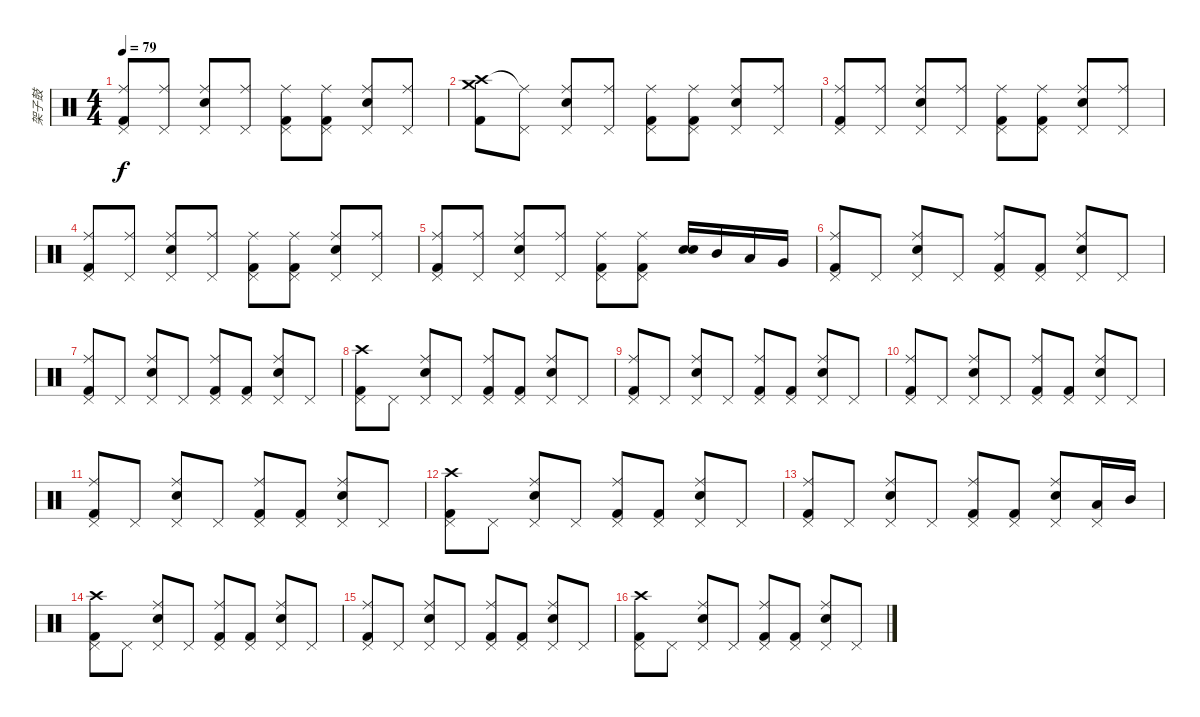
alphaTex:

\track ("架子鼓" "架子鼓") {instrument percussion}
\staff {score}
\articulation defaults
\ts (4 4)
\tempo 79
\clef neutral
\ks c
("Ride (middle)" "Pedal Hi-Hat (hit)" "Kick (hit) 2").8{dy f} ("Ride (middle)" "Pedal Hi-Hat (hit)").8 ("Ride (middle)" "Pedal Hi-Hat (hit)" "Electric Snare (hit)").8 ("Ride (middle)" "Pedal Hi-Hat (hit)").8 ("Ride (middle)" "Pedal Hi-Hat (hit)" "Kick (hit) 2").8 ("Ride (middle)" "Pedal Hi-Hat (hit)" "Kick (hit) 2").8 ("Ride (middle)" "Pedal Hi-Hat (hit)" "Electric Snare (hit)").8 ("Ride (middle)" "Pedal Hi-Hat (hit)").8 |
("Crash high (hit)" "Crash medium (hit)" "Kick (hit) 2").8 ("Ride (middle)"{t} "Pedal Hi-Hat (hit)").8 ("Ride (middle)" "Pedal Hi-Hat (hit)" "Electric Snare (hit)").8 ("Ride (middle)" "Pedal Hi-Hat (hit)").8 ("Ride (middle)" "Pedal Hi-Hat (hit)" "Kick (hit) 2").8 ("Ride (middle)" "Pedal Hi-Hat (hit)" "Kick (hit) 2").8 ("Ride (middle)" "Pedal Hi-Hat (hit)" "Electric Snare (hit)").8 ("Ride (middle)" "Pedal Hi-Hat (hit)").8 |
("Ride (middle)" "Pedal Hi-Hat (hit)" "Kick (hit) 2").8 ("Ride (middle)" "Pedal Hi-Hat (hit)").8 ("Ride (middle)" "Pedal Hi-Hat (hit)" "Electric Snare (hit)").8 ("Ride (middle)" "Pedal Hi-Hat (hit)").8 ("Ride (middle)" "Pedal Hi-Hat (hit)" "Kick (hit) 2").8 ("Ride (middle)" "Pedal Hi-Hat (hit)" "Kick (hit) 2").8 ("Ride (middle)" "Pedal Hi-Hat (hit)" "Electric Snare (hit)").8 ("Ride (middle)" "Pedal Hi-Hat (hit)").8 |
("Ride (middle)" "Pedal Hi-Hat (hit)" "Kick (hit) 2").8 ("Ride (middle)" "Pedal Hi-Hat (hit)").8 ("Ride (middle)" "Pedal Hi-Hat (hit)" "Electric Snare (hit)").8 ("Ride (middle)" "Pedal Hi-Hat (hit)").8 ("Ride (middle)" "Pedal Hi-Hat (hit)" "Kick (hit) 2").8 ("Ride (middle)" "Pedal Hi-Hat (hit)" "Kick (hit) 2").8 ("Ride (middle)" "Pedal Hi-Hat (hit)" "Electric Snare (hit)").8 ("Ride (middle)" "Pedal Hi-Hat (hit)").8 |
("Ride (middle)" "Pedal Hi-Hat (hit)" "Kick (hit) 2").8 ("Ride (middle)" "Pedal Hi-Hat (hit)").8 ("Ride (middle)" "Pedal Hi-Hat (hit)" "Electric Snare (hit)").8 ("Ride (middle)" "Pedal Hi-Hat (hit)").8 ("Ride (middle)" "Pedal Hi-Hat (hit)" "Kick (hit) 2").8 ("Ride (middle)" "Pedal Hi-Hat (hit)" "Kick (hit) 2").8 ("Electric Snare (hit)" "Electric Snare (hit)").16 "Mid Tom (hit)".16 "Low Tom (hit)".16 "Very Low Tom (hit)".16 |
("Ride (middle)" "Pedal Hi-Hat (hit)" "Kick (hit) 2").8 "Pedal Hi-Hat (hit)".8 ("Ride (middle)" "Pedal Hi-Hat (hit)" "Electric Snare (hit)").8 "Pedal Hi-Hat (hit)".8 ("Ride (middle)" "Pedal Hi-Hat (hit)" "Kick (hit) 2").8 ("Pedal Hi-Hat (hit)" "Kick (hit) 2").8 ("Ride (middle)" "Pedal Hi-Hat (hit)" "Electric Snare (hit)").8 "Pedal Hi-Hat (hit)".8 |
("Ride (middle)" "Pedal Hi-Hat (hit)" "Kick (hit) 2").8 "Pedal Hi-Hat (hit)".8 ("Ride (middle)" "Pedal Hi-Hat (hit)" "Electric Snare (hit)").8 "Pedal Hi-Hat (hit)".8 ("Ride (middle)" "Pedal Hi-Hat (hit)" "Kick (hit) 2").8 ("Pedal Hi-Hat (hit)" "Kick (hit) 2").8 ("Ride (middle)" "Pedal Hi-Hat (hit)" "Electric Snare (hit)").8 "Pedal Hi-Hat (hit)".8 |
("Crash high (hit)" "Pedal Hi-Hat (hit)" "Kick (hit) 2").8 "Pedal Hi-Hat (hit)".8 ("Ride (middle)" "Pedal Hi-Hat (hit)" "Electric Snare (hit)").8 "Pedal Hi-Hat (hit)".8 ("Ride (middle)" "Pedal Hi-Hat (hit)" "Kick (hit) 2").8 ("Pedal Hi-Hat (hit)" "Kick (hit) 2").8 ("Ride (middle)" "Pedal Hi-Hat (hit)" "Electric Snare (hit)").8 "Pedal Hi-Hat (hit)".8 |
("Ride (middle)" "Pedal Hi-Hat (hit)" "Kick (hit) 2").8 "Pedal Hi-Hat (hit)".8 ("Ride (middle)" "Pedal Hi-Hat (hit)" "Electric Snare (hit)").8 "Pedal Hi-Hat (hit)".8 ("Ride (middle)" "Pedal Hi-Hat (hit)" "Kick (hit) 2").8 ("Pedal Hi-Hat (hit)" "Kick (hit) 2").8 ("Ride (middle)" "Pedal Hi-Hat (hit)" "Electric Snare (hit)").8 "Pedal Hi-Hat (hit)".8 |
("Ride (middle)" "Pedal Hi-Hat (hit)" "Kick (hit) 2").8 "Pedal Hi-Hat (hit)".8 ("Ride (middle)" "Pedal Hi-Hat (hit)" "Electric Snare (hit)").8 "Pedal Hi-Hat (hit)".8 ("Ride (middle)" "Pedal Hi-Hat (hit)" "Kick (hit) 2").8 ("Pedal Hi-Hat (hit)" "Kick (hit) 2").8 ("Ride (middle)" "Pedal Hi-Hat (hit)" "Electric Snare (hit)").8 "Pedal Hi-Hat (hit)".8 |
("Ride (middle)" "Pedal Hi-Hat (hit)" "Kick (hit) 2").8 "Pedal Hi-Hat (hit)".8 ("Ride (middle)" "Pedal Hi-Hat (hit)" "Electric Snare (hit)").8 "Pedal Hi-Hat (hit)".8 ("Ride (middle)" "Pedal Hi-Hat (hit)" "Kick (hit) 2").8 ("Pedal Hi-Hat (hit)" "Kick (hit) 2").8 ("Ride (middle)" "Pedal Hi-Hat (hit)" "Electric Snare (hit)").8 "Pedal Hi-Hat (hit)".8 |
("Crash high (hit)" "Pedal Hi-Hat (hit)" "Kick (hit) 2").8 "Pedal Hi-Hat (hit)".8 ("Ride (middle)" "Pedal Hi-Hat (hit)" "Electric Snare (hit)").8 "Pedal Hi-Hat (hit)".8 ("Ride (middle)" "Pedal Hi-Hat (hit)" "Kick (hit) 2").8 ("Pedal Hi-Hat (hit)" "Kick (hit) 2").8 ("Ride (middle)" "Pedal Hi-Hat (hit)" "Electric Snare (hit)").8 "Pedal Hi-Hat (hit)".8 |
("Ride (middle)" "Pedal Hi-Hat (hit)" "Kick (hit) 2").8 "Pedal Hi-Hat (hit)".8 ("Ride (middle)" "Pedal Hi-Hat (hit)" "Electric Snare (hit)").8 "Pedal Hi-Hat (hit)".8 ("Ride (middle)" "Pedal Hi-Hat (hit)" "Kick (hit) 2").8 ("Pedal Hi-Hat (hit)" "Kick (hit) 2").8 ("Ride (middle)" "Pedal Hi-Hat (hit)" "Electric Snare (hit)").8 ("Pedal Hi-Hat (hit)" "Low Tom (hit)").16 "Mid Tom (hit)".16 |
("Crash high (hit)" "Pedal Hi-Hat (hit)" "Kick (hit) 2").8 "Pedal Hi-Hat (hit)".8 ("Ride (middle)" "Pedal Hi-Hat (hit)" "Electric Snare (hit)").8 "Pedal Hi-Hat (hit)".8 ("Ride (middle)" "Pedal Hi-Hat (hit)" "Kick (hit) 2").8 ("Pedal Hi-Hat (hit)" "Kick (hit) 2").8 ("Ride (middle)" "Pedal Hi-Hat (hit)" "Electric Snare (hit)").8 "Pedal Hi-Hat (hit)".8 |
("Ride (middle)" "Pedal Hi-Hat (hit)" "Kick (hit) 2").8 "Pedal Hi-Hat (hit)".8 ("Ride (middle)" "Pedal Hi-Hat (hit)" "Electric Snare (hit)").8 "Pedal Hi-Hat (hit)".8 ("Ride (middle)" "Pedal Hi-Hat (hit)" "Kick (hit) 2").8 ("Pedal Hi-Hat (hit)" "Kick (hit) 2").8 ("Ride (middle)" "Pedal Hi-Hat (hit)" "Electric Snare (hit)").8 "Pedal Hi-Hat (hit)".8 |
("Crash high (hit)" "Pedal Hi-Hat (hit)" "Kick (hit) 2").8 "Pedal Hi-Hat (hit)".8 ("Ride (middle)" "Pedal Hi-Hat (hit)" "Electric Snare (hit)").8 "Pedal Hi-Hat (hit)".8 ("Ride (middle)" "Pedal Hi-Hat (hit)" "Kick (hit) 2").8 ("Pedal Hi-Hat (hit)" "Kick (hit) 2").8 ("Ride (middle)" "Pedal Hi-Hat (hit)" "Electric Snare (hit)").8 "Pedal Hi-Hat (hit)".8
